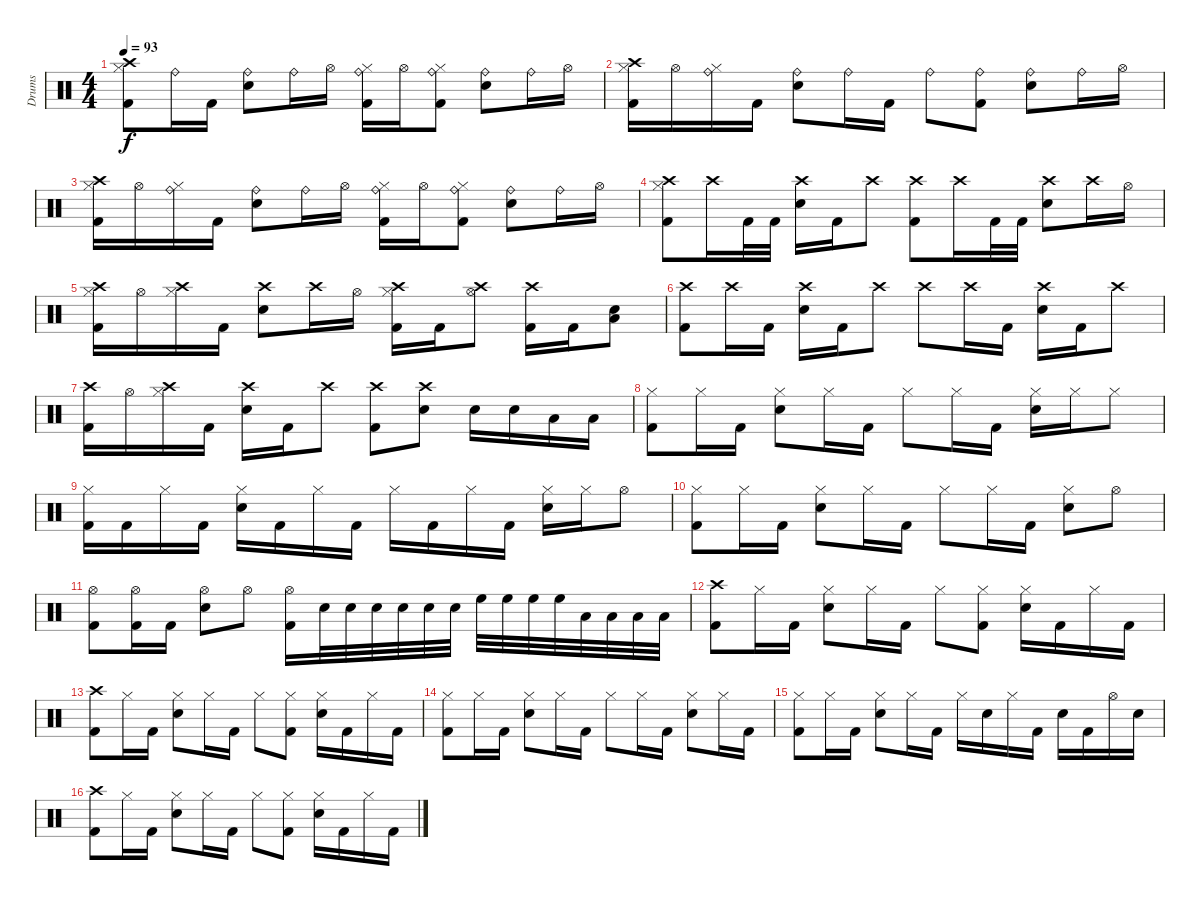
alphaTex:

\track ("Drums" "Drums") {instrument percussion}
\staff {score}
\articulation defaults
\ts (4 4)
\tempo 93
\clef neutral
\ks c
("Crash high (hit)" "Hi-Hat (closed)" "Kick (hit) 2").8{dy f} "Ride (bell)".16 "Kick (hit) 2".16 ("Ride (bell)" "Electric Snare (hit)").8 "Ride (bell)".16 "Hi-Hat (open)".16 ("Ride (bell)" "Hi-Hat (closed)" "Kick (hit) 2").16 "Hi-Hat (open)".16 ("Ride (bell)" "Hi-Hat (closed)" "Kick (hit) 2").8 ("Ride (bell)" "Electric Snare (hit)").8 "Ride (bell)".16 "Hi-Hat (open)".16 |
("Crash high (hit)" "Hi-Hat (closed)" "Kick (hit) 2").16 "Hi-Hat (open)".16 ("Ride (bell)" "Hi-Hat (closed)").16 "Kick (hit) 2".16 ("Ride (bell)" "Electric Snare (hit)").8 "Ride (bell)".16 "Kick (hit) 2".16 "Ride (bell)".8 ("Ride (bell)" "Kick (hit) 2").8 ("Ride (bell)" "Electric Snare (hit)").8 "Ride (bell)".16 "Hi-Hat (open)".16 |
("Crash high (hit)" "Hi-Hat (closed)" "Kick (hit) 2").16 "Hi-Hat (open)".16 ("Ride (bell)" "Hi-Hat (closed)").16 "Kick (hit) 2".16 ("Ride (bell)" "Electric Snare (hit)").8 "Ride (bell)".16 "Hi-Hat (open)".16 ("Ride (bell)" "Hi-Hat (closed)" "Kick (hit) 2").16 "Hi-Hat (open)".16 ("Ride (bell)" "Hi-Hat (closed)" "Kick (hit) 2").8 ("Ride (bell)" "Electric Snare (hit)").8 "Ride (bell)".16 "Hi-Hat (open)".16 |
("Crash high (hit)" "Hi-Hat (closed)" "Kick (hit) 2").8 "Crash high (hit)".16 "Kick (hit) 2".32 "Kick (hit) 2".32 ("Crash high (hit)" "Electric Snare (hit)").16 "Kick (hit) 2".16 "Crash high (hit)".8 ("Crash high (hit)" "Kick (hit) 2").8 "Crash high (hit)".16 "Kick (hit) 2".32 "Kick (hit) 2".32 ("Crash high (hit)" "Electric Snare (hit)").8 "Crash high (hit)".16 "Hi-Hat (open)".16 |
("Crash high (hit)" "Hi-Hat (closed)" "Kick (hit) 2").16 "Hi-Hat (open)".16 ("Crash high (hit)" "Hi-Hat (closed)").16 "Kick (hit) 2".16 ("Crash high (hit)" "Electric Snare (hit)").8 "Crash high (hit)".16 "Hi-Hat (open)".16 ("Crash high (hit)" "Hi-Hat (closed)" "Kick (hit) 2").16 "Kick (hit) 2".16 ("Crash high (hit)" "Hi-Hat (open)").8 ("Crash high (hit)" "Kick (hit) 2").16 "Kick (hit) 2".16 ("Electric Snare (hit)" "Low Floor Tom (hit)").8 |
("Crash high (hit)" "Kick (hit) 2").8 "Crash high (hit)".16 "Kick (hit) 2".16 ("Crash high (hit)" "Electric Snare (hit)").16 "Kick (hit) 2".16 "Crash high (hit)".8 "Crash high (hit)".8 "Crash high (hit)".16 "Kick (hit) 2".16 ("Crash high (hit)" "Electric Snare (hit)").16 "Kick (hit) 2".16 "Crash high (hit)".8 |
("Crash high (hit)" "Kick (hit) 2").16 "Hi-Hat (open)".16 ("Crash high (hit)" "Hi-Hat (closed)").16 "Kick (hit) 2".16 ("Crash high (hit)" "Electric Snare (hit)").16 "Kick (hit) 2".16 "Crash high (hit)".8 ("Crash high (hit)" "Kick (hit) 2").8 ("Crash high (hit)" "Electric Snare (hit)").8 "Electric Snare (hit)".16 "Electric Snare (hit)".16 "Low Tom (hit)".16 "Low Floor Tom (hit)".16 |
("Hi-Hat (closed)" "Kick (hit) 2").8 "Hi-Hat (closed)".16 "Kick (hit) 2".16 ("Hi-Hat (closed)" "Electric Snare (hit)").8 "Hi-Hat (closed)".16 "Kick (hit) 2".16 "Hi-Hat (closed)".8 "Hi-Hat (closed)".16 "Kick (hit) 2".16 ("Hi-Hat (closed)" "Electric Snare (hit)").16 "Hi-Hat (closed)".16 "Hi-Hat (closed)".8 |
("Hi-Hat (closed)" "Kick (hit) 2").16 "Kick (hit) 2".16 "Hi-Hat (closed)".16 "Kick (hit) 2".16 ("Hi-Hat (closed)" "Electric Snare (hit)").16 "Kick (hit) 2".16 "Hi-Hat (closed)".16 "Kick (hit) 2".16 "Hi-Hat (closed)".16 "Kick (hit) 2".16 "Hi-Hat (closed)".16 "Kick (hit) 2".16 ("Hi-Hat (closed)" "Electric Snare (hit)").16 "Hi-Hat (closed)".16 "Hi-Hat (open)".8 |
("Hi-Hat (closed)" "Kick (hit) 2").8 "Hi-Hat (closed)".16 "Kick (hit) 2".16 ("Hi-Hat (closed)" "Electric Snare (hit)").8 "Hi-Hat (closed)".16 "Kick (hit) 2".16 "Hi-Hat (closed)".8 "Hi-Hat (closed)".16 "Kick (hit) 2".16 ("Hi-Hat (closed)" "Electric Snare (hit)").8 "Hi-Hat (open)".8 |
("Hi-Hat (open)" "Kick (hit) 2").8 ("Hi-Hat (open)" "Kick (hit) 2").16 "Kick (hit) 2".16 ("Hi-Hat (open)" "Electric Snare (hit)").8 "Hi-Hat (open)".8 ("Hi-Hat (open)" "Kick (hit) 2").16 "Electric Snare (hit)".32 "Electric Snare (hit)".32 "Electric Snare (hit)".32 "Electric Snare (hit)".32 "Electric Snare (hit)".32 "Electric Snare (hit)".32 "High Floor Tom (hit)".32 "High Floor Tom (hit)".32 "High Floor Tom (hit)".32 "High Floor Tom (hit)".32 "Low Tom (hit)".32 "Low Tom (hit)".32 "Low Floor Tom (hit)".32 "Low Floor Tom (hit)".32 |
("Crash high (hit)" "Kick (hit) 2").8 "Hi-Hat (closed)".16 "Kick (hit) 2".16 ("Hi-Hat (closed)" "Electric Snare (hit)").8 "Hi-Hat (closed)".16 "Kick (hit) 2".16 "Hi-Hat (closed)".8 ("Hi-Hat (closed)" "Kick (hit) 2").8 ("Hi-Hat (closed)" "Electric Snare (hit)").16 "Kick (hit) 2".16 "Hi-Hat (closed)".16 "Kick (hit) 2".16 |
("Crash high (hit)" "Kick (hit) 2").8 "Hi-Hat (closed)".16 "Kick (hit) 2".16 ("Hi-Hat (closed)" "Electric Snare (hit)").8 "Hi-Hat (closed)".16 "Kick (hit) 2".16 "Hi-Hat (closed)".8 ("Hi-Hat (closed)" "Kick (hit) 2").8 ("Hi-Hat (closed)" "Electric Snare (hit)").16 "Kick (hit) 2".16 "Hi-Hat (closed)".16 "Kick (hit) 2".16 |
("Hi-Hat (closed)" "Kick (hit) 2").8 "Hi-Hat (closed)".16 "Kick (hit) 2".16 ("Hi-Hat (closed)" "Electric Snare (hit)").8 "Hi-Hat (closed)".16 "Kick (hit) 2".16 "Hi-Hat (closed)".8 "Hi-Hat (closed)".16 "Kick (hit) 2".16 ("Hi-Hat (closed)" "Electric Snare (hit)").8 "Hi-Hat (closed)".16 "Kick (hit) 2".16 |
("Hi-Hat (closed)" "Kick (hit) 2").8 "Hi-Hat (closed)".16 "Kick (hit) 2".16 ("Hi-Hat (closed)" "Electric Snare (hit)").8 "Hi-Hat (closed)".16 "Kick (hit) 2".16 "Hi-Hat (closed)".16 "Electric Snare (hit)".16 "Hi-Hat (closed)".16 "Kick (hit) 2".16 "Electric Snare (hit)".16 "Kick (hit) 2".16 "Hi-Hat (open)".16 "Electric Snare (hit)".16 |
("Crash high (hit)" "Kick (hit) 2").8 "Hi-Hat (closed)".16 "Kick (hit) 2".16 ("Hi-Hat (closed)" "Electric Snare (hit)").8 "Hi-Hat (closed)".16 "Kick (hit) 2".16 "Hi-Hat (closed)".8 ("Hi-Hat (closed)" "Kick (hit) 2").8 ("Hi-Hat (closed)" "Electric Snare (hit)").16 "Kick (hit) 2".16 "Hi-Hat (closed)".16 "Kick (hit) 2".16
